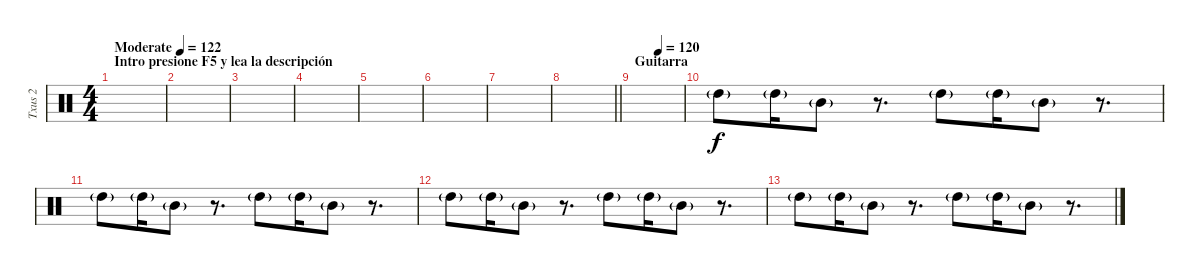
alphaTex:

\track ("Txus 2" "Txus 2") {instrument percussion}
\staff {score}
\articulation defaults
\ts (4 4)
\section ("" "Intro presione F5 y lea la descripción")
\tempo (122 "Moderate")
\clef neutral
\ks c
|
|
|
|
|
|
|
\barLineRight lightlight
|
\section ("" "Guitarra")
\tempo (120 0.5)
|
"High Tom (hit)"{g}.8 "High Tom (hit)"{g}.16 "Mid Tom (hit)"{g}.8 r.8{d} "High Tom (hit)"{g}.8 "High Tom (hit)"{g}.16 "Mid Tom (hit)"{g}.8 r.8{d} |
"High Tom (hit)"{g}.8 "High Tom (hit)"{g}.16 "Mid Tom (hit)"{g}.8 r.8{d} "High Tom (hit)"{g}.8 "High Tom (hit)"{g}.16 "Mid Tom (hit)"{g}.8 r.8{d} |
"High Tom (hit)"{g}.8 "High Tom (hit)"{g}.16 "Mid Tom (hit)"{g}.8 r.8{d} "High Tom (hit)"{g}.8 "High Tom (hit)"{g}.16 "Mid Tom (hit)"{g}.8 r.8{d} |
"High Tom (hit)"{g}.8 "High Tom (hit)"{g}.16 "Mid Tom (hit)"{g}.8 r.8{d} "High Tom (hit)"{g}.8 "High Tom (hit)"{g}.16 "Mid Tom (hit)"{g}.8 r.8{d}
